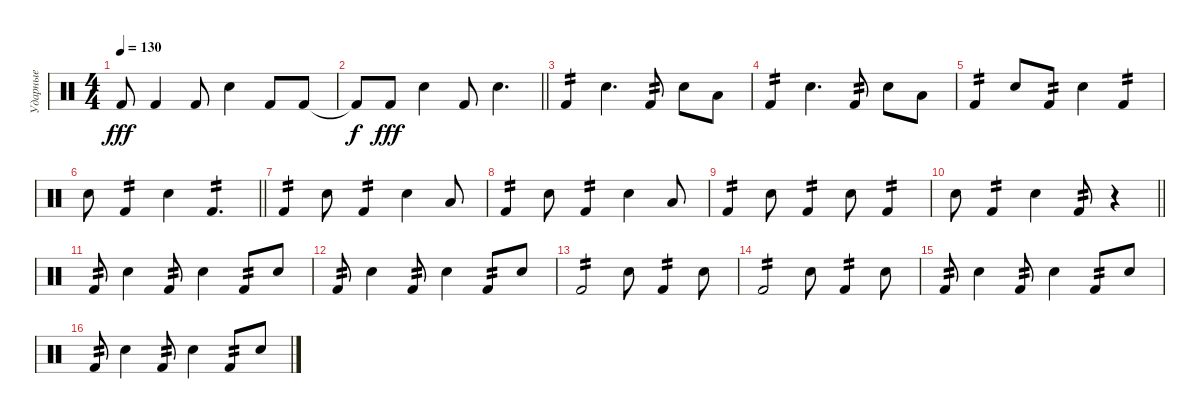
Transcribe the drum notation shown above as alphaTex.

\track ("Ударные" "Ударные") {instrument percussion}
\staff {score}
\articulation defaults
\ts (4 4)
\tempo 130
\clef neutral
\ks c "Kick (hit) 2".8{dy fff} "Kick (hit) 2".4 "Kick (hit) 2".8 "Snare (hit) 2".4 "Kick (hit) 2".8 "Kick (hit) 2".8
|
\barLineRight lightlight "Kick (hit) 2"{t}.8{dy f} "Kick (hit) 2".8{dy fff} "Snare (hit) 2".4 "Kick (hit) 2".8 "Snare (hit) 2".4{d}
|
"Kick (hit) 2".4{tp 2} "Snare (hit) 2".4{d} "Kick (hit) 2".8{tp 2} "Snare (hit) 2".8 "Low Floor Tom (hit)".8 |
"Kick (hit) 2".4{tp 2} "Snare (hit) 2".4{d} "Kick (hit) 2".8{tp 2} "Snare (hit) 2".8 "Low Tom (hit)".8 |
"Kick (hit) 2".4{tp 2} "Snare (hit) 2".8 "Kick (hit) 2".8{tp 2} "Snare (hit) 2".4 "Kick (hit) 2".4{tp 2} |
\barLineRight lightlight "Snare (hit) 2".8 "Kick (hit) 2".4{tp 2} "Snare (hit) 2".4 "Kick (hit) 2".4{d tp 2}
|
"Kick (hit) 2".4{tp 2} "Snare (hit) 2".8 "Kick (hit) 2".4{tp 2} "Snare (hit) 2".4 "Low Floor Tom (hit)".8 |
"Kick (hit) 2".4{tp 2} "Snare (hit) 2".8 "Kick (hit) 2".4{tp 2} "Snare (hit) 2".4 "Low Tom (hit)".8 |
"Kick (hit) 2".4{tp 2} "Snare (hit) 2".8 "Kick (hit) 2".4{tp 2} "Snare (hit) 2".8 "Kick (hit) 2".4{tp 2} |
\barLineRight lightlight "Snare (hit) 2".8 "Kick (hit) 2".4{tp 2} "Snare (hit) 2".4 "Kick (hit) 2".8{tp 2}
r.4 |
"Kick (hit) 2".8{tp 2} "Snare (hit) 2".4 "Kick (hit) 2".8{tp 2} "Snare (hit) 2".4 "Kick (hit) 2".8{tp 2} "Snare (hit) 2".8 |
"Kick (hit) 2".8{tp 2} "Snare (hit) 2".4 "Kick (hit) 2".8{tp 2} "Snare (hit) 2".4 "Kick (hit) 2".8{tp 2} "Snare (hit) 2".8 |
"Kick (hit) 2".2{tp 2} "Snare (hit) 2".8 "Kick (hit) 2".4{tp 2} "Snare (hit) 2".8 |
"Kick (hit) 2".2{tp 2} "Snare (hit) 2".8 "Kick (hit) 2".4{tp 2} "Snare (hit) 2".8 |
"Kick (hit) 2".8{tp 2} "Snare (hit) 2".4 "Kick (hit) 2".8{tp 2} "Snare (hit) 2".4 "Kick (hit) 2".8{tp 2} "Snare (hit) 2".8 |
"Kick (hit) 2".8{tp 2} "Snare (hit) 2".4 "Kick (hit) 2".8{tp 2} "Snare (hit) 2".4 "Kick (hit) 2".8{tp 2} "Snare (hit) 2".8
